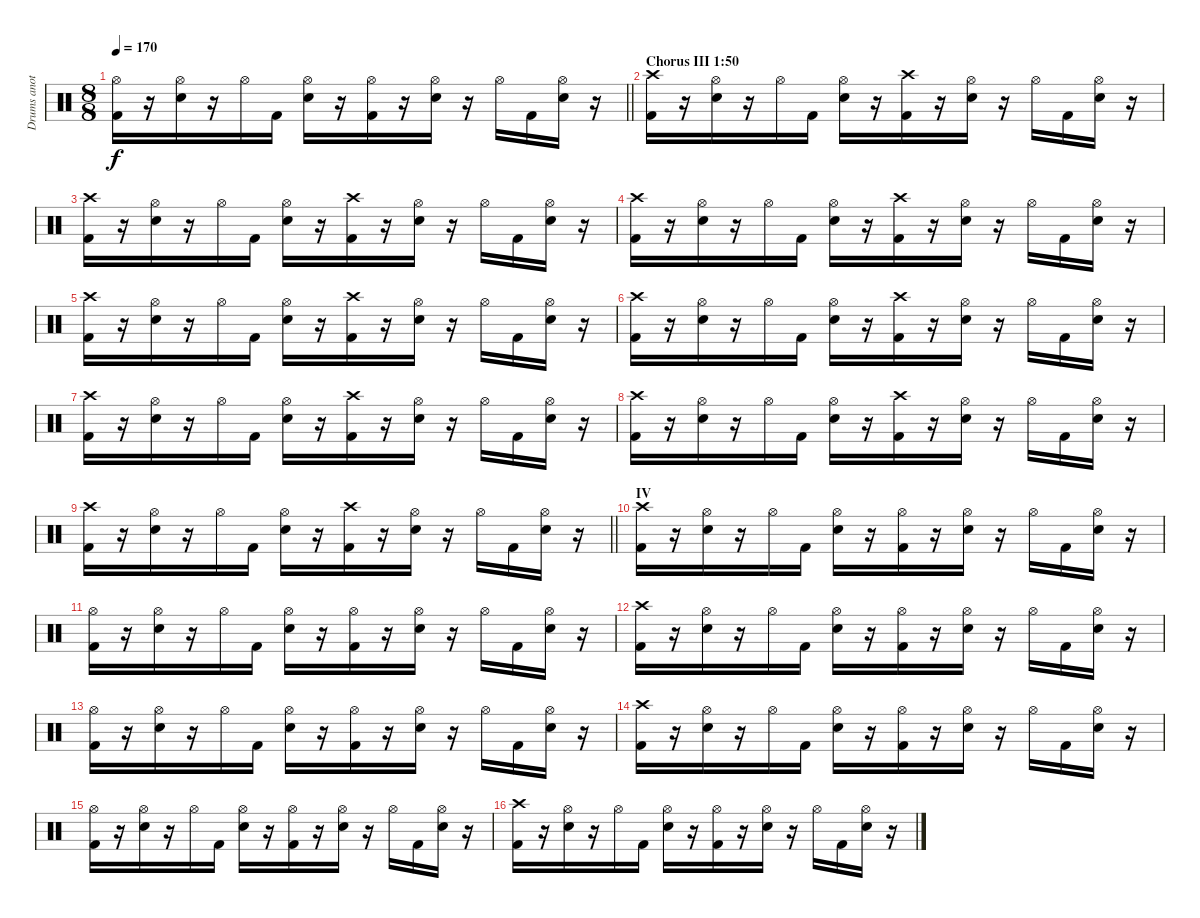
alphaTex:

\track ("Drums another version" "Drums anot") {mute instrument percussion}
\staff {score}
\articulation defaults
\ts (8 8)
\tempo 170
\clef neutral
\barLineRight lightlight
\ks c
("Hi-Hat (open)" "Kick (hit) 2").16{dy f} r.16 ("Hi-Hat (open)" "Snare (hit) 2").16 r.16 "Hi-Hat (open)".16 "Kick (hit) 2".16 ("Hi-Hat (open)" "Snare (hit) 2").16 r.16 ("Hi-Hat (open)" "Kick (hit) 2").16 r.16 ("Hi-Hat (open)" "Snare (hit) 2").16 r.16 "Hi-Hat (open)".16 "Kick (hit) 2".16 ("Hi-Hat (open)" "Snare (hit) 2").16 r.16 |
\section ("" "Chorus III 1:50")
("Crash high (hit)" "Kick (hit) 2").16 r.16 ("Hi-Hat (open)" "Snare (hit) 2").16 r.16 "Hi-Hat (open)".16 "Kick (hit) 2".16 ("Hi-Hat (open)" "Snare (hit) 2").16 r.16 ("Crash high (hit)" "Kick (hit) 2").16 r.16 ("Hi-Hat (open)" "Snare (hit) 2").16 r.16 "Hi-Hat (open)".16 "Kick (hit) 2".16 ("Hi-Hat (open)" "Snare (hit) 2").16 r.16 |
("Crash high (hit)" "Kick (hit) 2").16 r.16 ("Hi-Hat (open)" "Snare (hit) 2").16 r.16 "Hi-Hat (open)".16 "Kick (hit) 2".16 ("Hi-Hat (open)" "Snare (hit) 2").16 r.16 ("Crash high (hit)" "Kick (hit) 2").16 r.16 ("Hi-Hat (open)" "Snare (hit) 2").16 r.16 "Hi-Hat (open)".16 "Kick (hit) 2".16 ("Hi-Hat (open)" "Snare (hit) 2").16 r.16 |
("Crash high (hit)" "Kick (hit) 2").16 r.16 ("Hi-Hat (open)" "Snare (hit) 2").16 r.16 "Hi-Hat (open)".16 "Kick (hit) 2".16 ("Hi-Hat (open)" "Snare (hit) 2").16 r.16 ("Crash high (hit)" "Kick (hit) 2").16 r.16 ("Hi-Hat (open)" "Snare (hit) 2").16 r.16 "Hi-Hat (open)".16 "Kick (hit) 2".16 ("Hi-Hat (open)" "Snare (hit) 2").16 r.16 |
("Crash high (hit)" "Kick (hit) 2").16 r.16 ("Hi-Hat (open)" "Snare (hit) 2").16 r.16 "Hi-Hat (open)".16 "Kick (hit) 2".16 ("Hi-Hat (open)" "Snare (hit) 2").16 r.16 ("Crash high (hit)" "Kick (hit) 2").16 r.16 ("Hi-Hat (open)" "Snare (hit) 2").16 r.16 "Hi-Hat (open)".16 "Kick (hit) 2".16 ("Hi-Hat (open)" "Snare (hit) 2").16 r.16 |
("Crash high (hit)" "Kick (hit) 2").16 r.16 ("Hi-Hat (open)" "Snare (hit) 2").16 r.16 "Hi-Hat (open)".16 "Kick (hit) 2".16 ("Hi-Hat (open)" "Snare (hit) 2").16 r.16 ("Crash high (hit)" "Kick (hit) 2").16 r.16 ("Hi-Hat (open)" "Snare (hit) 2").16 r.16 "Hi-Hat (open)".16 "Kick (hit) 2".16 ("Hi-Hat (open)" "Snare (hit) 2").16 r.16 |
("Crash high (hit)" "Kick (hit) 2").16 r.16 ("Hi-Hat (open)" "Snare (hit) 2").16 r.16 "Hi-Hat (open)".16 "Kick (hit) 2".16 ("Hi-Hat (open)" "Snare (hit) 2").16 r.16 ("Crash high (hit)" "Kick (hit) 2").16 r.16 ("Hi-Hat (open)" "Snare (hit) 2").16 r.16 "Hi-Hat (open)".16 "Kick (hit) 2".16 ("Hi-Hat (open)" "Snare (hit) 2").16 r.16 |
("Crash high (hit)" "Kick (hit) 2").16 r.16 ("Hi-Hat (open)" "Snare (hit) 2").16 r.16 "Hi-Hat (open)".16 "Kick (hit) 2".16 ("Hi-Hat (open)" "Snare (hit) 2").16 r.16 ("Crash high (hit)" "Kick (hit) 2").16 r.16 ("Hi-Hat (open)" "Snare (hit) 2").16 r.16 "Hi-Hat (open)".16 "Kick (hit) 2".16 ("Hi-Hat (open)" "Snare (hit) 2").16 r.16 |
\barLineRight lightlight
("Crash high (hit)" "Kick (hit) 2").16 r.16 ("Hi-Hat (open)" "Snare (hit) 2").16 r.16 "Hi-Hat (open)".16 "Kick (hit) 2".16 ("Hi-Hat (open)" "Snare (hit) 2").16 r.16 ("Crash high (hit)" "Kick (hit) 2").16 r.16 ("Hi-Hat (open)" "Snare (hit) 2").16 r.16 "Hi-Hat (open)".16 "Kick (hit) 2".16 ("Hi-Hat (open)" "Snare (hit) 2").16 r.16 |
\section ("" "IV")
("Crash high (hit)" "Kick (hit) 2").16 r.16 ("Hi-Hat (open)" "Snare (hit) 2").16 r.16 "Hi-Hat (open)".16 "Kick (hit) 2".16 ("Hi-Hat (open)" "Snare (hit) 2").16 r.16 ("Hi-Hat (open)" "Kick (hit) 2").16 r.16 ("Hi-Hat (open)" "Snare (hit) 2").16 r.16 "Hi-Hat (open)".16 "Kick (hit) 2".16 ("Hi-Hat (open)" "Snare (hit) 2").16 r.16 |
("Hi-Hat (open)" "Kick (hit) 2").16 r.16 ("Hi-Hat (open)" "Snare (hit) 2").16 r.16 "Hi-Hat (open)".16 "Kick (hit) 2".16 ("Hi-Hat (open)" "Snare (hit) 2").16 r.16 ("Hi-Hat (open)" "Kick (hit) 2").16 r.16 ("Hi-Hat (open)" "Snare (hit) 2").16 r.16 "Hi-Hat (open)".16 "Kick (hit) 2".16 ("Hi-Hat (open)" "Snare (hit) 2").16 r.16 |
("Crash high (hit)" "Kick (hit) 2").16 r.16 ("Hi-Hat (open)" "Snare (hit) 2").16 r.16 "Hi-Hat (open)".16 "Kick (hit) 2".16 ("Hi-Hat (open)" "Snare (hit) 2").16 r.16 ("Hi-Hat (open)" "Kick (hit) 2").16 r.16 ("Hi-Hat (open)" "Snare (hit) 2").16 r.16 "Hi-Hat (open)".16 "Kick (hit) 2".16 ("Hi-Hat (open)" "Snare (hit) 2").16 r.16 |
("Hi-Hat (open)" "Kick (hit) 2").16 r.16 ("Hi-Hat (open)" "Snare (hit) 2").16 r.16 "Hi-Hat (open)".16 "Kick (hit) 2".16 ("Hi-Hat (open)" "Snare (hit) 2").16 r.16 ("Hi-Hat (open)" "Kick (hit) 2").16 r.16 ("Hi-Hat (open)" "Snare (hit) 2").16 r.16 "Hi-Hat (open)".16 "Kick (hit) 2".16 ("Hi-Hat (open)" "Snare (hit) 2").16 r.16 |
("Crash high (hit)" "Kick (hit) 2").16 r.16 ("Hi-Hat (open)" "Snare (hit) 2").16 r.16 "Hi-Hat (open)".16 "Kick (hit) 2".16 ("Hi-Hat (open)" "Snare (hit) 2").16 r.16 ("Hi-Hat (open)" "Kick (hit) 2").16 r.16 ("Hi-Hat (open)" "Snare (hit) 2").16 r.16 "Hi-Hat (open)".16 "Kick (hit) 2".16 ("Hi-Hat (open)" "Snare (hit) 2").16 r.16 |
("Hi-Hat (open)" "Kick (hit) 2").16 r.16 ("Hi-Hat (open)" "Snare (hit) 2").16 r.16 "Hi-Hat (open)".16 "Kick (hit) 2".16 ("Hi-Hat (open)" "Snare (hit) 2").16 r.16 ("Hi-Hat (open)" "Kick (hit) 2").16 r.16 ("Hi-Hat (open)" "Snare (hit) 2").16 r.16 "Hi-Hat (open)".16 "Kick (hit) 2".16 ("Hi-Hat (open)" "Snare (hit) 2").16 r.16 |
("Crash high (hit)" "Kick (hit) 2").16 r.16 ("Hi-Hat (open)" "Snare (hit) 2").16 r.16 "Hi-Hat (open)".16 "Kick (hit) 2".16 ("Hi-Hat (open)" "Snare (hit) 2").16 r.16 ("Hi-Hat (open)" "Kick (hit) 2").16 r.16 ("Hi-Hat (open)" "Snare (hit) 2").16 r.16 "Hi-Hat (open)".16 "Kick (hit) 2".16 ("Hi-Hat (open)" "Snare (hit) 2").16 r.16
